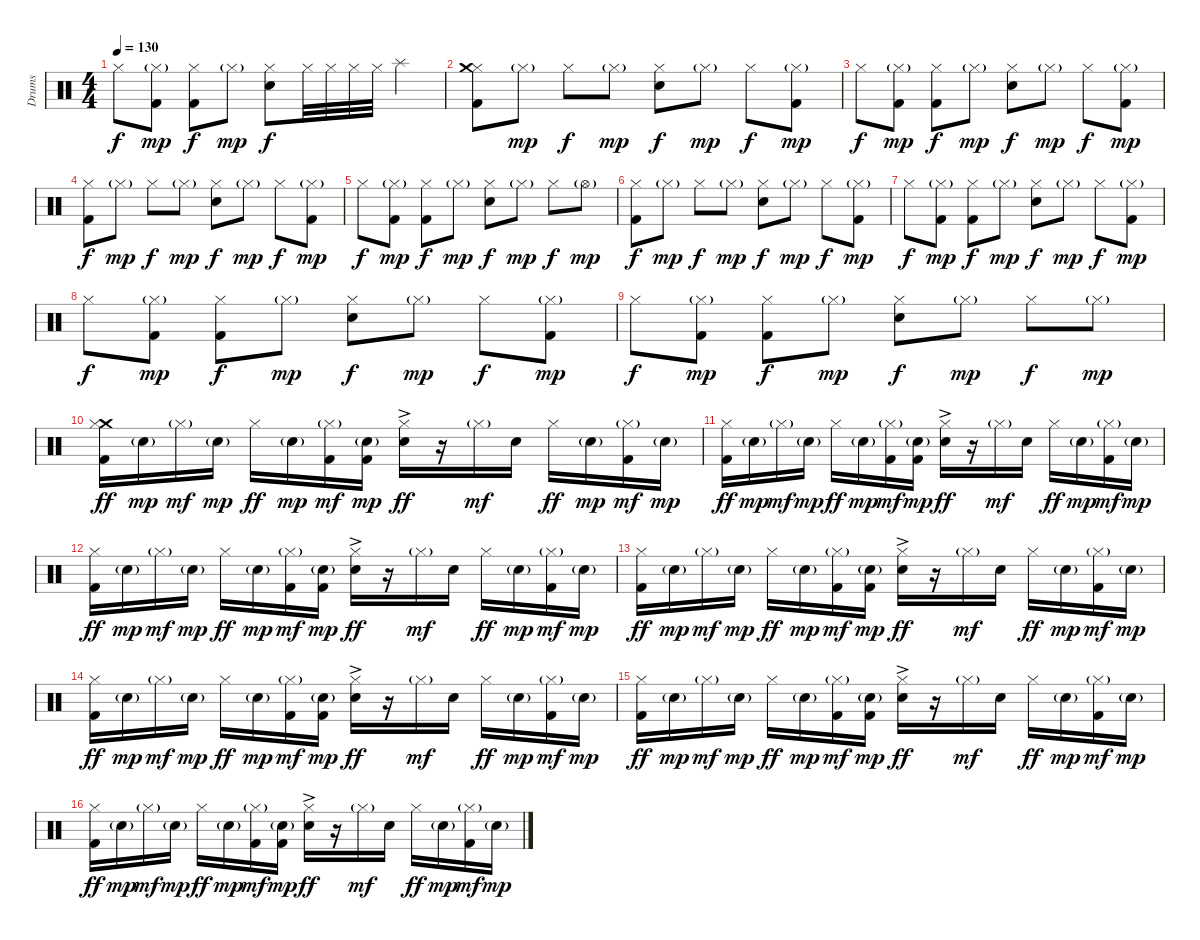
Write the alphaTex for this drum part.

\track ("Drums" "Drums") {instrument percussion}
\staff {score}
\articulation defaults
\ts (4 4)
\tempo 130
\clef neutral
\ks c "Hi-Hat (closed)".8{dy f}
("Hi-Hat (closed)"{g} "Kick (hit) 2").8{dy mp} ("Hi-Hat (closed)" "Kick (hit) 2").8{dy f} "Hi-Hat (closed)"{g}.8{dy mp} ("Hi-Hat (closed)" "Electric Snare (hit)").8{dy f} "Hi-Hat (closed)".32 "Hi-Hat (closed)".32 "Hi-Hat (closed)".32 "Hi-Hat (closed)".32 "Splash (hit)".4 |
("Hi-Hat (closed)" "Crash medium (hit)" "Kick (hit) 2").8 "Hi-Hat (closed)"{g}.8{dy mp} "Hi-Hat (closed)".8{dy f} "Hi-Hat (closed)"{g}.8{dy mp} ("Hi-Hat (closed)" "Electric Snare (hit)").8{dy f} "Hi-Hat (closed)"{g}.8{dy mp} "Hi-Hat (closed)".8{dy f} ("Hi-Hat (closed)"{g} "Kick (hit) 2").8{dy mp} |
"Hi-Hat (closed)".8{dy f} ("Hi-Hat (closed)"{g} "Kick (hit) 2").8{dy mp} ("Hi-Hat (closed)" "Kick (hit) 2").8{dy f} "Hi-Hat (closed)"{g}.8{dy mp} ("Hi-Hat (closed)" "Electric Snare (hit)").8{dy f} "Hi-Hat (closed)"{g}.8{dy mp} "Hi-Hat (closed)".8{dy f} ("Hi-Hat (closed)"{g} "Kick (hit) 2").8{dy mp} |
("Hi-Hat (closed)" "Kick (hit) 2").8{dy f} "Hi-Hat (closed)"{g}.8{dy mp} "Hi-Hat (closed)".8{dy f} "Hi-Hat (closed)"{g}.8{dy mp} ("Hi-Hat (closed)" "Electric Snare (hit)").8{dy f} "Hi-Hat (closed)"{g}.8{dy mp} "Hi-Hat (closed)".8{dy f} ("Hi-Hat (closed)"{g} "Kick (hit) 2").8{dy mp} |
"Hi-Hat (closed)".8{dy f} ("Hi-Hat (closed)"{g} "Kick (hit) 2").8{dy mp} ("Hi-Hat (closed)" "Kick (hit) 2").8{dy f} "Hi-Hat (closed)"{g}.8{dy mp} ("Hi-Hat (closed)" "Electric Snare (hit)").8{dy f} "Hi-Hat (closed)"{g}.8{dy mp} "Hi-Hat (closed)".8{dy f} "Hi-Hat (open)"{g}.8{dy mp} |
("Hi-Hat (closed)" "Kick (hit) 2").8{dy f} "Hi-Hat (closed)"{g}.8{dy mp} "Hi-Hat (closed)".8{dy f} "Hi-Hat (closed)"{g}.8{dy mp} ("Hi-Hat (closed)" "Electric Snare (hit)").8{dy f} "Hi-Hat (closed)"{g}.8{dy mp} "Hi-Hat (closed)".8{dy f} ("Hi-Hat (closed)"{g} "Kick (hit) 2").8{dy mp} |
"Hi-Hat (closed)".8{dy f} ("Hi-Hat (closed)"{g} "Kick (hit) 2").8{dy mp} ("Hi-Hat (closed)" "Kick (hit) 2").8{dy f} "Hi-Hat (closed)"{g}.8{dy mp} ("Hi-Hat (closed)" "Electric Snare (hit)").8{dy f} "Hi-Hat (closed)"{g}.8{dy mp} "Hi-Hat (closed)".8{dy f} ("Hi-Hat (closed)"{g} "Kick (hit) 2").8{dy mp} |
"Hi-Hat (closed)".8{dy f} ("Hi-Hat (closed)"{g} "Kick (hit) 2").8{dy mp} ("Hi-Hat (closed)" "Kick (hit) 2").8{dy f} "Hi-Hat (closed)"{g}.8{dy mp} ("Hi-Hat (closed)" "Electric Snare (hit)").8{dy f} "Hi-Hat (closed)"{g}.8{dy mp} "Hi-Hat (closed)".8{dy f} ("Hi-Hat (closed)"{g} "Kick (hit) 2").8{dy mp} |
"Hi-Hat (closed)".8{dy f} ("Hi-Hat (closed)"{g} "Kick (hit) 2").8{dy mp} ("Hi-Hat (closed)" "Kick (hit) 2").8{dy f} "Hi-Hat (closed)"{g}.8{dy mp} ("Hi-Hat (closed)" "Electric Snare (hit)").8{dy f} "Hi-Hat (closed)"{g}.8{dy mp} "Hi-Hat (closed)".8{dy f} "Hi-Hat (closed)"{g}.8{dy mp} |
("Crash medium (hit)" "Hi-Hat (closed)" "Kick (hit) 2").16{dy ff volume 15} "Electric Snare (hit)"{g}.16{dy mp} "Hi-Hat (closed)"{g}.16{dy mf} "Electric Snare (hit)"{g}.16{dy mp} "Hi-Hat (closed)".16{dy ff} "Electric Snare (hit)"{g}.16{dy mp} ("Hi-Hat (closed)"{g} "Kick (hit) 2").16{dy mf} ("Electric Snare (hit)"{g} "Kick (hit) 2").16{dy mp} ("Hi-Hat (closed)" "Electric Snare (hit)"{ac}).16{dy ff} r.16 "Hi-Hat (closed)"{g}.16{dy mf} "Electric Snare (hit)".16 "Hi-Hat (closed)".16{dy ff} "Electric Snare (hit)"{g}.16{dy mp} ("Hi-Hat (closed)"{g} "Kick (hit) 2").16{dy mf} "Electric Snare (hit)"{g}.16{dy mp} |
("Hi-Hat (closed)" "Kick (hit) 2").16{dy ff} "Electric Snare (hit)"{g}.16{dy mp} "Hi-Hat (closed)"{g}.16{dy mf} "Electric Snare (hit)"{g}.16{dy mp} "Hi-Hat (closed)".16{dy ff} "Electric Snare (hit)"{g}.16{dy mp} ("Hi-Hat (closed)"{g} "Kick (hit) 2").16{dy mf} ("Electric Snare (hit)"{g} "Kick (hit) 2").16{dy mp} ("Hi-Hat (closed)" "Electric Snare (hit)"{ac}).16{dy ff} r.16 "Hi-Hat (closed)"{g}.16{dy mf} "Electric Snare (hit)".16 "Hi-Hat (closed)".16{dy ff} "Electric Snare (hit)"{g}.16{dy mp} ("Hi-Hat (closed)"{g} "Kick (hit) 2").16{dy mf} "Electric Snare (hit)"{g}.16{dy mp} |
("Hi-Hat (closed)" "Kick (hit) 2").16{dy ff} "Electric Snare (hit)"{g}.16{dy mp} "Hi-Hat (closed)"{g}.16{dy mf} "Electric Snare (hit)"{g}.16{dy mp} "Hi-Hat (closed)".16{dy ff} "Electric Snare (hit)"{g}.16{dy mp} ("Hi-Hat (closed)"{g} "Kick (hit) 2").16{dy mf} ("Electric Snare (hit)"{g} "Kick (hit) 2").16{dy mp} ("Hi-Hat (closed)" "Electric Snare (hit)"{ac}).16{dy ff} r.16 "Hi-Hat (closed)"{g}.16{dy mf} "Electric Snare (hit)".16 "Hi-Hat (closed)".16{dy ff} "Electric Snare (hit)"{g}.16{dy mp} ("Hi-Hat (closed)"{g} "Kick (hit) 2").16{dy mf} "Electric Snare (hit)"{g}.16{dy mp} |
("Hi-Hat (closed)" "Kick (hit) 2").16{dy ff} "Electric Snare (hit)"{g}.16{dy mp} "Hi-Hat (closed)"{g}.16{dy mf} "Electric Snare (hit)"{g}.16{dy mp} "Hi-Hat (closed)".16{dy ff} "Electric Snare (hit)"{g}.16{dy mp} ("Hi-Hat (closed)"{g} "Kick (hit) 2").16{dy mf} ("Electric Snare (hit)"{g} "Kick (hit) 2").16{dy mp} ("Hi-Hat (closed)" "Electric Snare (hit)"{ac}).16{dy ff} r.16 "Hi-Hat (closed)"{g}.16{dy mf} "Electric Snare (hit)".16 "Hi-Hat (closed)".16{dy ff} "Electric Snare (hit)"{g}.16{dy mp} ("Hi-Hat (closed)"{g} "Kick (hit) 2").16{dy mf} "Electric Snare (hit)"{g}.16{dy mp} |
("Hi-Hat (closed)" "Kick (hit) 2").16{dy ff} "Electric Snare (hit)"{g}.16{dy mp} "Hi-Hat (closed)"{g}.16{dy mf} "Electric Snare (hit)"{g}.16{dy mp} "Hi-Hat (closed)".16{dy ff} "Electric Snare (hit)"{g}.16{dy mp} ("Hi-Hat (closed)"{g} "Kick (hit) 2").16{dy mf} ("Electric Snare (hit)"{g} "Kick (hit) 2").16{dy mp} ("Hi-Hat (closed)" "Electric Snare (hit)"{ac}).16{dy ff} r.16 "Hi-Hat (closed)"{g}.16{dy mf} "Electric Snare (hit)".16 "Hi-Hat (closed)".16{dy ff} "Electric Snare (hit)"{g}.16{dy mp} ("Hi-Hat (closed)"{g} "Kick (hit) 2").16{dy mf} "Electric Snare (hit)"{g}.16{dy mp} |
("Hi-Hat (closed)" "Kick (hit) 2").16{dy ff} "Electric Snare (hit)"{g}.16{dy mp} "Hi-Hat (closed)"{g}.16{dy mf} "Electric Snare (hit)"{g}.16{dy mp} "Hi-Hat (closed)".16{dy ff} "Electric Snare (hit)"{g}.16{dy mp} ("Hi-Hat (closed)"{g} "Kick (hit) 2").16{dy mf} ("Electric Snare (hit)"{g} "Kick (hit) 2").16{dy mp} ("Hi-Hat (closed)" "Electric Snare (hit)"{ac}).16{dy ff} r.16 "Hi-Hat (closed)"{g}.16{dy mf} "Electric Snare (hit)".16 "Hi-Hat (closed)".16{dy ff} "Electric Snare (hit)"{g}.16{dy mp} ("Hi-Hat (closed)"{g} "Kick (hit) 2").16{dy mf} "Electric Snare (hit)"{g}.16{dy mp} |
("Hi-Hat (closed)" "Kick (hit) 2").16{dy ff} "Electric Snare (hit)"{g}.16{dy mp} "Hi-Hat (closed)"{g}.16{dy mf} "Electric Snare (hit)"{g}.16{dy mp} "Hi-Hat (closed)".16{dy ff} "Electric Snare (hit)"{g}.16{dy mp} ("Hi-Hat (closed)"{g} "Kick (hit) 2").16{dy mf} ("Electric Snare (hit)"{g} "Kick (hit) 2").16{dy mp} ("Hi-Hat (closed)" "Electric Snare (hit)"{ac}).16{dy ff} r.16 "Hi-Hat (closed)"{g}.16{dy mf} "Electric Snare (hit)".16 "Hi-Hat (closed)".16{dy ff} "Electric Snare (hit)"{g}.16{dy mp} ("Hi-Hat (closed)"{g} "Kick (hit) 2").16{dy mf} "Electric Snare (hit)"{g}.16{dy mp}
